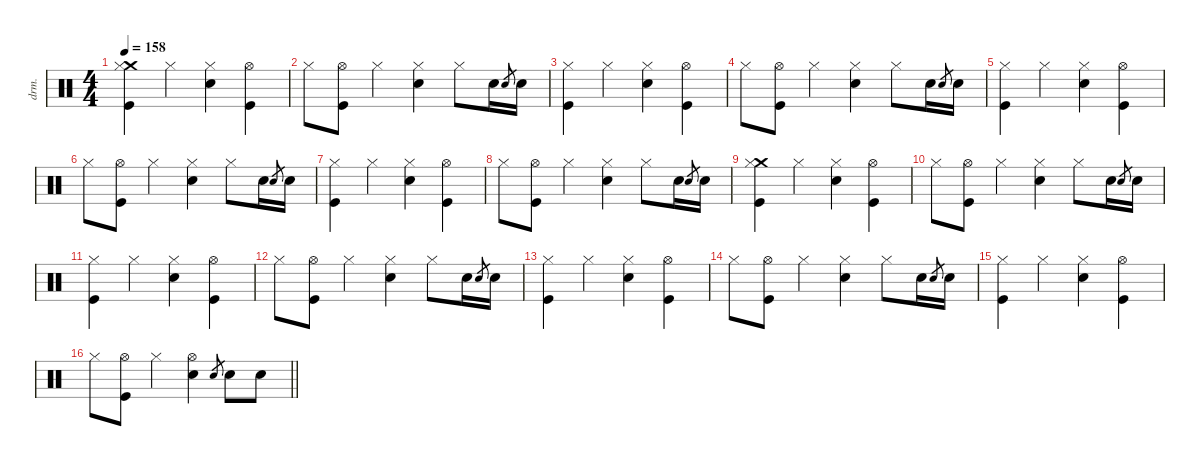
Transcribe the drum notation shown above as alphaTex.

\defaultSystemsLayout 4
\hideDynamics
\bracketExtendMode groupsimilarinstruments
\otherSystemsTrackNameOrientation horizontal
\track ("Drums" "drm.") {defaultSystemsLayout 4 instrument percussion}
\staff {score}
\articulation defaults
\ts (4 4)
\tempo 158
\clef neutral
\ks aminor
("Crash medium (hit)" "Hi-Hat (closed)" "Kick (hit)").4{dy f beam Down} "Hi-Hat (closed)".4{beam Down} ("Hi-Hat (closed)" "Snare (hit) 2").4{beam Down} ("Hi-Hat (open)" "Kick (hit)").4{beam Down} |
"Hi-Hat (closed)".8{beam Down} ("Hi-Hat (open)" "Kick (hit)").8{beam Down} "Hi-Hat (closed)".4{beam Down} ("Hi-Hat (closed)" "Snare (hit) 2").4{beam Down} "Hi-Hat (closed)".8{beam Down} "Snare (hit) 2".16{dy p beam Down} "Electric Snare (hit)".8{gr beam Up} "Snare (hit) 2".16{beam Down} |
("Hi-Hat (closed)" "Kick (hit)").4{dy f beam Down} "Hi-Hat (closed)".4{beam Down} ("Hi-Hat (closed)" "Snare (hit) 2").4{beam Down} ("Hi-Hat (open)" "Kick (hit)").4{beam Down} |
"Hi-Hat (closed)".8{beam Down} ("Hi-Hat (open)" "Kick (hit)").8{beam Down} "Hi-Hat (closed)".4{beam Down} ("Hi-Hat (closed)" "Snare (hit) 2").4{beam Down} "Hi-Hat (closed)".8{beam Down} "Snare (hit) 2".16{dy p beam Down} "Electric Snare (hit)".8{gr beam Up} "Snare (hit) 2".16{beam Down} |
("Hi-Hat (closed)" "Kick (hit)").4{dy f beam Down} "Hi-Hat (closed)".4{beam Down} ("Hi-Hat (closed)" "Snare (hit) 2").4{beam Down} ("Hi-Hat (open)" "Kick (hit)").4{beam Down} |
"Hi-Hat (closed)".8{beam Down} ("Hi-Hat (open)" "Kick (hit)").8{beam Down} "Hi-Hat (closed)".4{beam Down} ("Hi-Hat (closed)" "Snare (hit) 2").4{beam Down} "Hi-Hat (closed)".8{beam Down} "Snare (hit) 2".16{dy p beam Down} "Electric Snare (hit)".8{gr beam Up} "Snare (hit) 2".16{beam Down} |
("Hi-Hat (closed)" "Kick (hit)").4{dy f beam Down} "Hi-Hat (closed)".4{beam Down} ("Hi-Hat (closed)" "Snare (hit) 2").4{beam Down} ("Hi-Hat (open)" "Kick (hit)").4{beam Down} |
"Hi-Hat (closed)".8{beam Down} ("Hi-Hat (open)" "Kick (hit)").8{beam Down} "Hi-Hat (closed)".4{beam Down} ("Hi-Hat (closed)" "Snare (hit) 2").4{beam Down} "Hi-Hat (closed)".8{beam Down} "Snare (hit) 2".16{dy p beam Down} "Electric Snare (hit)".8{gr beam Up} "Snare (hit) 2".16{beam Down} |
("Crash medium (hit)" "Hi-Hat (closed)" "Kick (hit)").4{dy f beam Down} "Hi-Hat (closed)".4{beam Down} ("Hi-Hat (closed)" "Snare (hit) 2").4{beam Down} ("Hi-Hat (open)" "Kick (hit)").4{beam Down} |
"Hi-Hat (closed)".8{beam Down} ("Hi-Hat (open)" "Kick (hit)").8{beam Down} "Hi-Hat (closed)".4{beam Down} ("Hi-Hat (closed)" "Snare (hit) 2").4{beam Down} "Hi-Hat (closed)".8{beam Down} "Snare (hit) 2".16{dy p beam Down} "Electric Snare (hit)".8{gr beam Up} "Snare (hit) 2".16{beam Down} |
("Hi-Hat (closed)" "Kick (hit)").4{dy f beam Down} "Hi-Hat (closed)".4{beam Down} ("Hi-Hat (closed)" "Snare (hit) 2").4{beam Down} ("Hi-Hat (open)" "Kick (hit)").4{beam Down} |
"Hi-Hat (closed)".8{beam Down} ("Hi-Hat (open)" "Kick (hit)").8{beam Down} "Hi-Hat (closed)".4{beam Down} ("Hi-Hat (closed)" "Snare (hit) 2").4{beam Down} "Hi-Hat (closed)".8{beam Down} "Snare (hit) 2".16{dy p beam Down} "Electric Snare (hit)".8{gr beam Up} "Snare (hit) 2".16{beam Down} |
("Hi-Hat (closed)" "Kick (hit)").4{dy f beam Down} "Hi-Hat (closed)".4{beam Down} ("Hi-Hat (closed)" "Snare (hit) 2").4{beam Down} ("Hi-Hat (open)" "Kick (hit)").4{beam Down} |
"Hi-Hat (closed)".8{beam Down} ("Hi-Hat (open)" "Kick (hit)").8{beam Down} "Hi-Hat (closed)".4{beam Down} ("Hi-Hat (closed)" "Snare (hit) 2").4{beam Down} "Hi-Hat (closed)".8{beam Down} "Snare (hit) 2".16{dy p beam Down} "Electric Snare (hit)".8{gr beam Up} "Snare (hit) 2".16{beam Down} |
("Hi-Hat (closed)" "Kick (hit)").4{dy f beam Down} "Hi-Hat (closed)".4{beam Down} ("Hi-Hat (closed)" "Snare (hit) 2").4{beam Down} ("Hi-Hat (open)" "Kick (hit)").4{beam Down} |
\barLineRight lightlight "Hi-Hat (closed)".8{beam Down}
("Hi-Hat (open)" "Kick (hit)").8{beam Down} "Hi-Hat (closed)".4{beam Down} ("Hi-Hat (open)" "Snare (hit) 2").4{beam Down} "Electric Snare (hit)".8{gr dy mf beam Up} "Snare (hit) 2".8{dy f beam Down} "Snare (hit) 2".8{beam Down}
